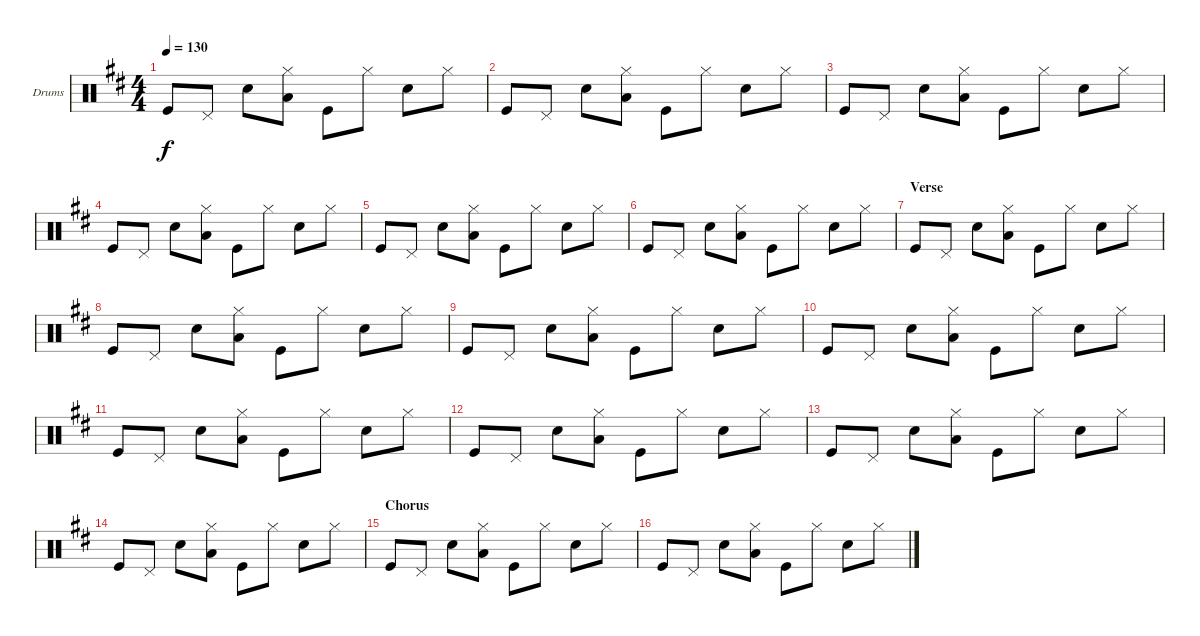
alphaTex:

\defaultSystemsLayout 4
\bracketExtendMode groupsimilarinstruments
\firstSystemTrackNameOrientation horizontal
\otherSystemsTrackNameOrientation horizontal
\track ("Drumkit" "Drums") {instrument percussion}
\staff {score}
\articulation defaults
\ts (4 4)
\tempo 130
\clef neutral
\scale
0.333333
\ks d "Kick (hit)".8{dy f} "Pedal Hi-Hat (hit)".8 "Snare (hit) 2".8
("Hi-Hat (closed)" "Low Tom (hit)").8 "Kick (hit)".8 "Hi-Hat (closed)".8 "Snare (hit) 2".8 "Hi-Hat (closed)".8 |
\scale
0.333333 "Kick (hit)".8 "Pedal Hi-Hat (hit)".8 "Snare (hit) 2".8 ("Hi-Hat (closed)" "Low Tom (hit)").8 "Kick (hit)".8 "Hi-Hat (closed)".8 "Snare (hit) 2".8 "Hi-Hat (closed)".8 |
\scale
0.333333 "Kick (hit)".8 "Pedal Hi-Hat (hit)".8 "Snare (hit) 2".8 ("Hi-Hat (closed)" "Low Tom (hit)").8 "Kick (hit)".8 "Hi-Hat (closed)".8 "Snare (hit) 2".8 "Hi-Hat (closed)".8 |
\scale
0.333333 "Kick (hit)".8 "Pedal Hi-Hat (hit)".8 "Snare (hit) 2".8 ("Hi-Hat (closed)" "Low Tom (hit)").8 "Kick (hit)".8 "Hi-Hat (closed)".8 "Snare (hit) 2".8 "Hi-Hat (closed)".8 |
\scale
0.333333 "Kick (hit)".8 "Pedal Hi-Hat (hit)".8 "Snare (hit) 2".8 ("Hi-Hat (closed)" "Low Tom (hit)").8 "Kick (hit)".8 "Hi-Hat (closed)".8 "Snare (hit) 2".8 "Hi-Hat (closed)".8 |
\scale
0.333333 "Kick (hit)".8 "Pedal Hi-Hat (hit)".8 "Snare (hit) 2".8 ("Hi-Hat (closed)" "Low Tom (hit)").8 "Kick (hit)".8 "Hi-Hat (closed)".8 "Snare (hit) 2".8 "Hi-Hat (closed)".8 |
\section ("" "Verse")
\scale
0.333333 "Kick (hit)".8 "Pedal Hi-Hat (hit)".8 "Snare (hit) 2".8 ("Hi-Hat (closed)" "Low Tom (hit)").8 "Kick (hit)".8 "Hi-Hat (closed)".8 "Snare (hit) 2".8 "Hi-Hat (closed)".8 |
\scale
0.333333 "Kick (hit)".8 "Pedal Hi-Hat (hit)".8 "Snare (hit) 2".8 ("Hi-Hat (closed)" "Low Tom (hit)").8 "Kick (hit)".8 "Hi-Hat (closed)".8 "Snare (hit) 2".8 "Hi-Hat (closed)".8 |
\scale
0.333333 "Kick (hit)".8 "Pedal Hi-Hat (hit)".8 "Snare (hit) 2".8 ("Hi-Hat (closed)" "Low Tom (hit)").8 "Kick (hit)".8 "Hi-Hat (closed)".8 "Snare (hit) 2".8 "Hi-Hat (closed)".8 |
\scale
0.333333 "Kick (hit)".8 "Pedal Hi-Hat (hit)".8 "Snare (hit) 2".8 ("Hi-Hat (closed)" "Low Tom (hit)").8 "Kick (hit)".8 "Hi-Hat (closed)".8 "Snare (hit) 2".8 "Hi-Hat (closed)".8 |
\scale
0.333333 "Kick (hit)".8 "Pedal Hi-Hat (hit)".8 "Snare (hit) 2".8 ("Hi-Hat (closed)" "Low Tom (hit)").8 "Kick (hit)".8 "Hi-Hat (closed)".8 "Snare (hit) 2".8 "Hi-Hat (closed)".8 |
\scale
0.333333 "Kick (hit)".8 "Pedal Hi-Hat (hit)".8 "Snare (hit) 2".8 ("Hi-Hat (closed)" "Low Tom (hit)").8 "Kick (hit)".8 "Hi-Hat (closed)".8 "Snare (hit) 2".8 "Hi-Hat (closed)".8 |
\scale
0.333333 "Kick (hit)".8 "Pedal Hi-Hat (hit)".8 "Snare (hit) 2".8 ("Hi-Hat (closed)" "Low Tom (hit)").8 "Kick (hit)".8 "Hi-Hat (closed)".8 "Snare (hit) 2".8 "Hi-Hat (closed)".8 |
\scale
0.333333 "Kick (hit)".8 "Pedal Hi-Hat (hit)".8 "Snare (hit) 2".8 ("Hi-Hat (closed)" "Low Tom (hit)").8 "Kick (hit)".8 "Hi-Hat (closed)".8 "Snare (hit) 2".8 "Hi-Hat (closed)".8 |
\section ("" "Chorus")
\scale
0.333333 "Kick (hit)".8 "Pedal Hi-Hat (hit)".8 "Snare (hit) 2".8 ("Hi-Hat (closed)" "Low Tom (hit)").8 "Kick (hit)".8 "Hi-Hat (closed)".8 "Snare (hit) 2".8 "Hi-Hat (closed)".8 |
\scale
0.333333 "Kick (hit)".8 "Pedal Hi-Hat (hit)".8 "Snare (hit) 2".8 ("Hi-Hat (closed)" "Low Tom (hit)").8 "Kick (hit)".8 "Hi-Hat (closed)".8 "Snare (hit) 2".8 "Hi-Hat (closed)".8
